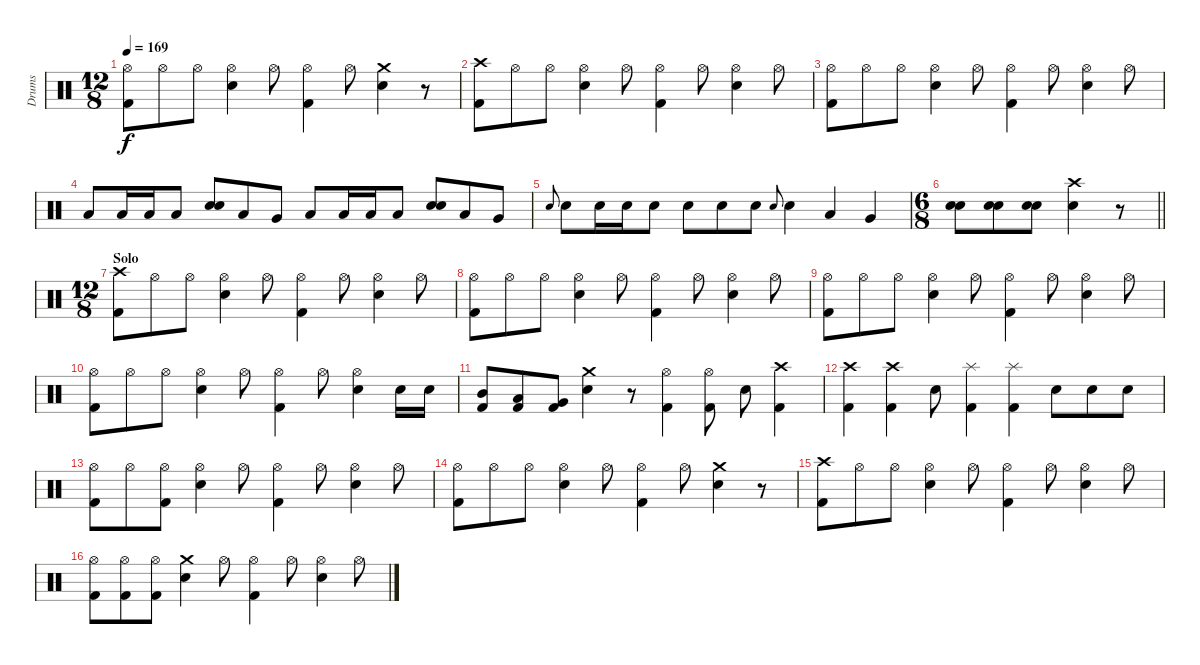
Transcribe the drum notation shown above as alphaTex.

\track ("Drums" "Drums") {instrument percussion}
\staff {score}
\articulation defaults
\ts (12 8)
\tempo 169
\clef neutral
\ks c
("Kick (hit) 2" "Hi-Hat (open)").8{dy f} "Hi-Hat (open)".8 "Hi-Hat (open)".8 ("Snare (hit) 2" "Hi-Hat (open)").4 "Hi-Hat (open)".8 ("Kick (hit) 2" "Hi-Hat (open)").4 "Hi-Hat (open)".8 ("Snare (hit) 2" "Crash medium (hit)").4 r.8 |
("Kick (hit) 2" "Crash high (hit)").8 "Hi-Hat (open)".8 "Hi-Hat (open)".8 ("Snare (hit) 2" "Hi-Hat (open)").4 "Hi-Hat (open)".8 ("Kick (hit) 2" "Hi-Hat (open)").4 "Hi-Hat (open)".8 ("Snare (hit) 2" "Hi-Hat (open)").4 "Hi-Hat (open)".8 |
("Kick (hit) 2" "Hi-Hat (open)").8 "Hi-Hat (open)".8 "Hi-Hat (open)".8 ("Snare (hit) 2" "Hi-Hat (open)").4 "Hi-Hat (open)".8 ("Kick (hit) 2" "Hi-Hat (open)").4 "Hi-Hat (open)".8 ("Snare (hit) 2" "Hi-Hat (open)").4 "Hi-Hat (open)".8 |
"Low Tom (hit)".8 "Low Tom (hit)".16 "Low Tom (hit)".16 "Low Tom (hit)".8 ("Snare (hit) 2" "Snare (hit) 2").8 "Low Tom (hit)".8 "Very Low Tom (hit)".8 "Low Tom (hit)".8 "Low Tom (hit)".16 "Low Tom (hit)".16 "Low Tom (hit)".8 ("Snare (hit) 2" "Snare (hit) 2").8 "Low Tom (hit)".8 "Very Low Tom (hit)".8 |
"Snare (hit) 2".8{gr onbeat} "Snare (hit) 2".8 "Snare (hit) 2".16 "Snare (hit) 2".16 "Snare (hit) 2".8 "Snare (hit) 2".8 "Snare (hit) 2".8 "Snare (hit) 2".8 "Snare (hit) 2".8{gr onbeat} "Snare (hit) 2".4 "Low Tom (hit)".4 "Very Low Tom (hit)".4 |
\ts (6 8)
\barLineRight lightlight
("Snare (hit) 2" "Snare (hit) 2").8 ("Snare (hit) 2" "Snare (hit) 2").8 ("Snare (hit) 2" "Snare (hit) 2").8 ("Snare (hit) 2" "Crash high (hit)").4 r.8 |
\ts (12 8)
\section ("" "Solo")
("Kick (hit) 2" "Crash high (hit)").8 "Hi-Hat (open)".8 "Hi-Hat (open)".8 ("Snare (hit) 2" "Hi-Hat (open)").4 "Hi-Hat (open)".8 ("Kick (hit) 2" "Hi-Hat (open)").4 "Hi-Hat (open)".8 ("Snare (hit) 2" "Hi-Hat (open)").4 "Hi-Hat (open)".8 |
("Kick (hit) 2" "Hi-Hat (open)").8 "Hi-Hat (open)".8 "Hi-Hat (open)".8 ("Snare (hit) 2" "Hi-Hat (open)").4 "Hi-Hat (open)".8 ("Kick (hit) 2" "Hi-Hat (open)").4 "Hi-Hat (open)".8 ("Snare (hit) 2" "Hi-Hat (open)").4 "Hi-Hat (open)".8 |
("Kick (hit) 2" "Hi-Hat (open)").8 "Hi-Hat (open)".8 "Hi-Hat (open)".8 ("Snare (hit) 2" "Hi-Hat (open)").4 "Hi-Hat (open)".8 ("Kick (hit) 2" "Hi-Hat (open)").4 "Hi-Hat (open)".8 ("Snare (hit) 2" "Hi-Hat (open)").4 "Hi-Hat (open)".8 |
("Kick (hit) 2" "Hi-Hat (open)").8 "Hi-Hat (open)".8 "Hi-Hat (open)".8 ("Snare (hit) 2" "Hi-Hat (open)").4 "Hi-Hat (open)".8 ("Kick (hit) 2" "Hi-Hat (open)").4 "Hi-Hat (open)".8 ("Snare (hit) 2" "Hi-Hat (open)").4 "Snare (hit) 2".16 "Snare (hit) 2".16 |
("Kick (hit) 2" "Mid Tom (hit)").8 ("Kick (hit) 2" "Low Tom (hit)").8 ("Kick (hit) 2" "Very Low Tom (hit)").8 ("Snare (hit) 2" "Crash medium (hit)").4 r.8 ("Kick (hit) 2" "Hi-Hat (open)").4 ("Kick (hit) 2" "Hi-Hat (open)").8 "Snare (hit) 2".8 ("Kick (hit) 2" "Crash high (hit)").4 |
("Kick (hit) 2" "Crash high (hit)").4 ("Kick (hit) 2" "Crash high (hit)").4 "Snare (hit) 2".8 ("Kick (hit) 2" "Splash (hit)").4 ("Kick (hit) 2" "Splash (hit)").4 "Snare (hit) 2".8 "Snare (hit) 2".8 "Snare (hit) 2".8 |
("Kick (hit) 2" "Hi-Hat (open)").8 "Hi-Hat (open)".8 ("Kick (hit) 2" "Hi-Hat (open)").8 ("Snare (hit) 2" "Hi-Hat (open)").4 "Hi-Hat (open)".8 ("Kick (hit) 2" "Hi-Hat (open)").4 "Hi-Hat (open)".8 ("Snare (hit) 2" "Hi-Hat (open)").4 "Hi-Hat (open)".8 |
("Kick (hit) 2" "Hi-Hat (open)").8 "Hi-Hat (open)".8 "Hi-Hat (open)".8 ("Snare (hit) 2" "Hi-Hat (open)").4 "Hi-Hat (open)".8 ("Kick (hit) 2" "Hi-Hat (open)").4 "Hi-Hat (open)".8 ("Snare (hit) 2" "Crash medium (hit)").4 r.8 |
("Kick (hit) 2" "Crash high (hit)").8 "Hi-Hat (open)".8 "Hi-Hat (open)".8 ("Snare (hit) 2" "Hi-Hat (open)").4 "Hi-Hat (open)".8 ("Kick (hit) 2" "Hi-Hat (open)").4 "Hi-Hat (open)".8 ("Snare (hit) 2" "Hi-Hat (open)").4 "Hi-Hat (open)".8 |
("Kick (hit) 2" "Hi-Hat (open)").8 ("Kick (hit) 2" "Hi-Hat (open)").8 ("Kick (hit) 2" "Hi-Hat (open)").8 ("Snare (hit) 2" "Crash medium (hit)").4 "Hi-Hat (open)".8 ("Kick (hit) 2" "Hi-Hat (open)").4 "Hi-Hat (open)".8 ("Snare (hit) 2" "Hi-Hat (open)").4 "Hi-Hat (open)".8
